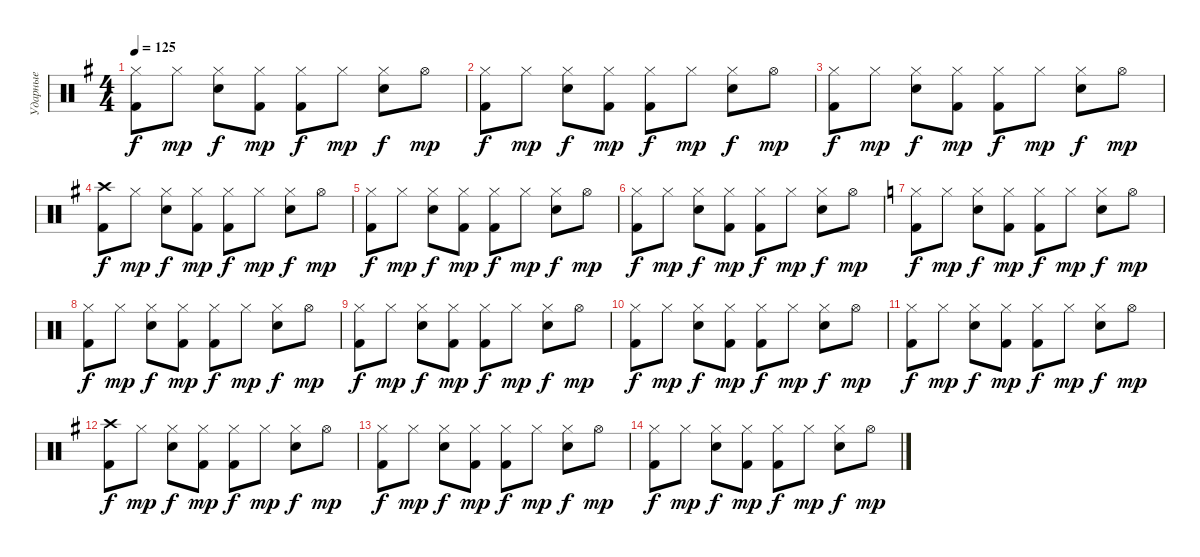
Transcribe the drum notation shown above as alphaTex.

\track ("Ударные" "Ударные") {instrument percussion}
\staff {score}
\articulation defaults
\ts (4 4)
\tempo 125
\clef neutral
\ks eminor
("Hi-Hat (closed)" "Kick (hit) 2").8{dy f} "Hi-Hat (closed)".8{dy mp} ("Hi-Hat (closed)" "Snare (hit) 2").8{dy f} ("Hi-Hat (closed)" "Kick (hit) 2").8{dy mp} ("Hi-Hat (closed)" "Kick (hit) 2").8{dy f} "Hi-Hat (closed)".8{dy mp} ("Hi-Hat (closed)" "Snare (hit) 2").8{dy f} "Hi-Hat (open)".8{dy mp} |
("Hi-Hat (closed)" "Kick (hit) 2").8{dy f} "Hi-Hat (closed)".8{dy mp} ("Hi-Hat (closed)" "Snare (hit) 2").8{dy f} ("Hi-Hat (closed)" "Kick (hit) 2").8{dy mp} ("Hi-Hat (closed)" "Kick (hit) 2").8{dy f} "Hi-Hat (closed)".8{dy mp} ("Hi-Hat (closed)" "Snare (hit) 2").8{dy f} "Hi-Hat (open)".8{dy mp} |
("Hi-Hat (closed)" "Kick (hit) 2").8{dy f} "Hi-Hat (closed)".8{dy mp} ("Hi-Hat (closed)" "Snare (hit) 2").8{dy f} ("Hi-Hat (closed)" "Kick (hit) 2").8{dy mp} ("Hi-Hat (closed)" "Kick (hit) 2").8{dy f} "Hi-Hat (closed)".8{dy mp} ("Hi-Hat (closed)" "Snare (hit) 2").8{dy f} "Hi-Hat (open)".8{dy mp} |
("Crash high (hit)" "Kick (hit) 2").8{dy f} "Hi-Hat (closed)".8{dy mp} ("Hi-Hat (closed)" "Snare (hit) 2").8{dy f} ("Hi-Hat (closed)" "Kick (hit) 2").8{dy mp} ("Hi-Hat (closed)" "Kick (hit) 2").8{dy f} "Hi-Hat (closed)".8{dy mp} ("Hi-Hat (closed)" "Snare (hit) 2").8{dy f} "Hi-Hat (open)".8{dy mp} |
("Hi-Hat (closed)" "Kick (hit) 2").8{dy f} "Hi-Hat (closed)".8{dy mp} ("Hi-Hat (closed)" "Snare (hit) 2").8{dy f} ("Hi-Hat (closed)" "Kick (hit) 2").8{dy mp} ("Hi-Hat (closed)" "Kick (hit) 2").8{dy f} "Hi-Hat (closed)".8{dy mp} ("Hi-Hat (closed)" "Snare (hit) 2").8{dy f} "Hi-Hat (open)".8{dy mp} |
("Hi-Hat (closed)" "Kick (hit) 2").8{dy f} "Hi-Hat (closed)".8{dy mp} ("Hi-Hat (closed)" "Snare (hit) 2").8{dy f} ("Hi-Hat (closed)" "Kick (hit) 2").8{dy mp} ("Hi-Hat (closed)" "Kick (hit) 2").8{dy f} "Hi-Hat (closed)".8{dy mp} ("Hi-Hat (closed)" "Snare (hit) 2").8{dy f} "Hi-Hat (open)".8{dy mp} |
\ks c
("Hi-Hat (closed)" "Kick (hit) 2").8{dy f} "Hi-Hat (closed)".8{dy mp} ("Hi-Hat (closed)" "Snare (hit) 2").8{dy f} ("Hi-Hat (closed)" "Kick (hit) 2").8{dy mp} ("Hi-Hat (closed)" "Kick (hit) 2").8{dy f} "Hi-Hat (closed)".8{dy mp} ("Hi-Hat (closed)" "Snare (hit) 2").8{dy f} "Hi-Hat (open)".8{dy mp} |
("Hi-Hat (closed)" "Kick (hit) 2").8{dy f} "Hi-Hat (closed)".8{dy mp} ("Hi-Hat (closed)" "Snare (hit) 2").8{dy f} ("Hi-Hat (closed)" "Kick (hit) 2").8{dy mp} ("Hi-Hat (closed)" "Kick (hit) 2").8{dy f} "Hi-Hat (closed)".8{dy mp} ("Hi-Hat (closed)" "Snare (hit) 2").8{dy f} "Hi-Hat (open)".8{dy mp} |
("Hi-Hat (closed)" "Kick (hit) 2").8{dy f} "Hi-Hat (closed)".8{dy mp} ("Hi-Hat (closed)" "Snare (hit) 2").8{dy f} ("Hi-Hat (closed)" "Kick (hit) 2").8{dy mp} ("Hi-Hat (closed)" "Kick (hit) 2").8{dy f} "Hi-Hat (closed)".8{dy mp} ("Hi-Hat (closed)" "Snare (hit) 2").8{dy f} "Hi-Hat (open)".8{dy mp} |
("Hi-Hat (closed)" "Kick (hit) 2").8{dy f} "Hi-Hat (closed)".8{dy mp} ("Hi-Hat (closed)" "Snare (hit) 2").8{dy f} ("Hi-Hat (closed)" "Kick (hit) 2").8{dy mp} ("Hi-Hat (closed)" "Kick (hit) 2").8{dy f} "Hi-Hat (closed)".8{dy mp} ("Hi-Hat (closed)" "Snare (hit) 2").8{dy f} "Hi-Hat (open)".8{dy mp} |
("Hi-Hat (closed)" "Kick (hit) 2").8{dy f} "Hi-Hat (closed)".8{dy mp} ("Hi-Hat (closed)" "Snare (hit) 2").8{dy f} ("Hi-Hat (closed)" "Kick (hit) 2").8{dy mp} ("Hi-Hat (closed)" "Kick (hit) 2").8{dy f} "Hi-Hat (closed)".8{dy mp} ("Hi-Hat (closed)" "Snare (hit) 2").8{dy f} "Hi-Hat (open)".8{dy mp} |
\ks eminor
("Crash high (hit)" "Kick (hit) 2").8{dy f} "Hi-Hat (closed)".8{dy mp} ("Hi-Hat (closed)" "Snare (hit) 2").8{dy f} ("Hi-Hat (closed)" "Kick (hit) 2").8{dy mp} ("Hi-Hat (closed)" "Kick (hit) 2").8{dy f} "Hi-Hat (closed)".8{dy mp} ("Hi-Hat (closed)" "Snare (hit) 2").8{dy f} "Hi-Hat (open)".8{dy mp} |
("Hi-Hat (closed)" "Kick (hit) 2").8{dy f} "Hi-Hat (closed)".8{dy mp} ("Hi-Hat (closed)" "Snare (hit) 2").8{dy f} ("Hi-Hat (closed)" "Kick (hit) 2").8{dy mp} ("Hi-Hat (closed)" "Kick (hit) 2").8{dy f} "Hi-Hat (closed)".8{dy mp} ("Hi-Hat (closed)" "Snare (hit) 2").8{dy f} "Hi-Hat (open)".8{dy mp} |
("Hi-Hat (closed)" "Kick (hit) 2").8{dy f} "Hi-Hat (closed)".8{dy mp} ("Hi-Hat (closed)" "Snare (hit) 2").8{dy f} ("Hi-Hat (closed)" "Kick (hit) 2").8{dy mp} ("Hi-Hat (closed)" "Kick (hit) 2").8{dy f} "Hi-Hat (closed)".8{dy mp} ("Hi-Hat (closed)" "Snare (hit) 2").8{dy f} "Hi-Hat (open)".8{dy mp}
